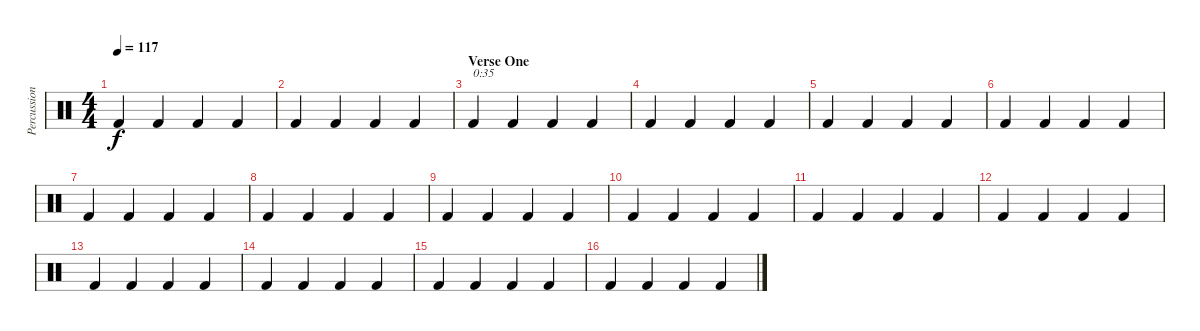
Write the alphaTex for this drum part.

\track ("Percussion" "Percussion") {instrument percussion}
\staff {score}
\articulation defaults
\ts (4 4)
\tempo 117
\clef neutral
\ks c "Kick (hit) 2".4{dy f} "Kick (hit) 2".4 "Kick (hit) 2".4 "Kick (hit) 2".4
|
"Kick (hit) 2".4 "Kick (hit) 2".4 "Kick (hit) 2".4 "Kick (hit) 2".4 |
\section ("" "Verse One")
"Kick (hit) 2".4{txt "0:35"} "Kick (hit) 2".4 "Kick (hit) 2".4 "Kick (hit) 2".4 |
"Kick (hit) 2".4 "Kick (hit) 2".4 "Kick (hit) 2".4 "Kick (hit) 2".4 |
"Kick (hit) 2".4 "Kick (hit) 2".4 "Kick (hit) 2".4 "Kick (hit) 2".4 |
"Kick (hit) 2".4 "Kick (hit) 2".4 "Kick (hit) 2".4 "Kick (hit) 2".4 |
"Kick (hit) 2".4 "Kick (hit) 2".4 "Kick (hit) 2".4 "Kick (hit) 2".4 |
"Kick (hit) 2".4 "Kick (hit) 2".4 "Kick (hit) 2".4 "Kick (hit) 2".4 |
"Kick (hit) 2".4 "Kick (hit) 2".4 "Kick (hit) 2".4 "Kick (hit) 2".4 |
"Kick (hit) 2".4 "Kick (hit) 2".4 "Kick (hit) 2".4 "Kick (hit) 2".4 |
"Kick (hit) 2".4 "Kick (hit) 2".4 "Kick (hit) 2".4 "Kick (hit) 2".4 |
"Kick (hit) 2".4 "Kick (hit) 2".4 "Kick (hit) 2".4 "Kick (hit) 2".4 |
"Kick (hit) 2".4 "Kick (hit) 2".4 "Kick (hit) 2".4 "Kick (hit) 2".4 |
"Kick (hit) 2".4 "Kick (hit) 2".4 "Kick (hit) 2".4 "Kick (hit) 2".4 |
"Kick (hit) 2".4 "Kick (hit) 2".4 "Kick (hit) 2".4 "Kick (hit) 2".4 |
"Kick (hit) 2".4 "Kick (hit) 2".4 "Kick (hit) 2".4 "Kick (hit) 2".4
